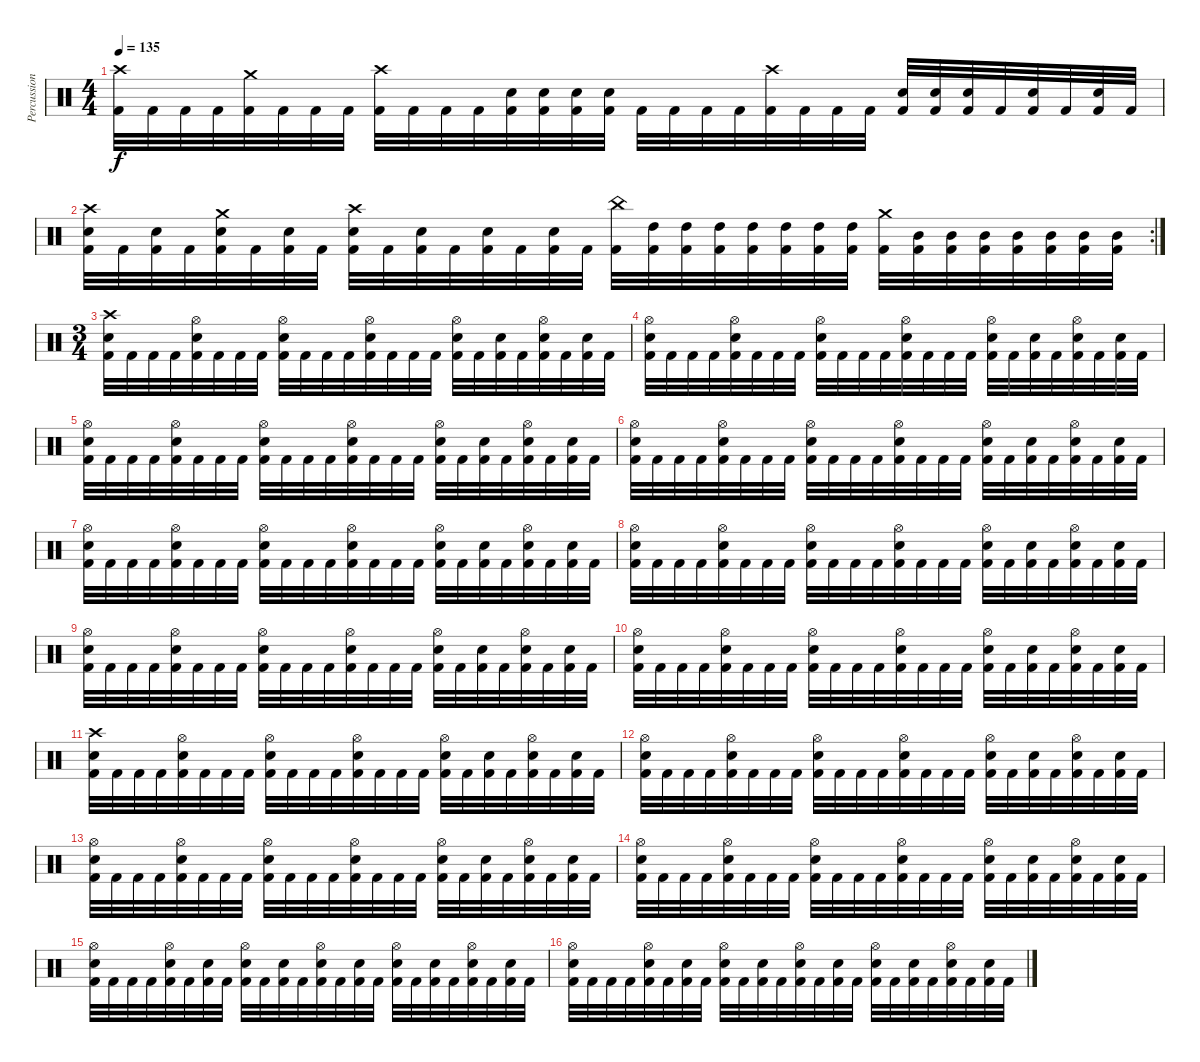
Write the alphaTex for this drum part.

\track ("Percussion" "Percussion") {instrument percussion}
\staff {score}
\articulation defaults
\ts (4 4)
\tempo 135
\clef neutral
\ks c
("Crash high (hit)" "Kick (hit) 2").32{dy f} "Kick (hit) 2".32 "Kick (hit) 2".32 "Kick (hit) 2".32 ("Crash medium (hit)" "Kick (hit) 2").32 "Kick (hit) 2".32 "Kick (hit) 2".32 "Kick (hit) 2".32 ("Crash high (hit)" "Kick (hit) 2").32 "Kick (hit) 2".32 "Kick (hit) 2".32 "Kick (hit) 2".32 ("Electric Snare (hit)" "Kick (hit) 2").32 ("Electric Snare (hit)" "Kick (hit) 2").32 ("Electric Snare (hit)" "Kick (hit) 2").32 ("Electric Snare (hit)" "Kick (hit) 2").32 "Kick (hit) 2".32 "Kick (hit) 2".32 "Kick (hit) 2".32 "Kick (hit) 2".32 ("Crash high (hit)" "Kick (hit) 2").32 "Kick (hit) 2".32 "Kick (hit) 2".32 "Kick (hit) 2".32 ("Electric Snare (hit)" "Kick (hit) 2").32 ("Electric Snare (hit)" "Kick (hit) 2").32 ("Electric Snare (hit)" "Kick (hit) 2").32 "Kick (hit) 2".32 ("Electric Snare (hit)" "Kick (hit) 2").32 "Kick (hit) 2".32 ("Electric Snare (hit)" "Kick (hit) 2").32 "Kick (hit) 2".32 |
\rc 2
("Crash high (hit)" "Electric Snare (hit)" "Kick (hit) 2").32 "Kick (hit) 2".32 ("Electric Snare (hit)" "Kick (hit) 2").32 "Kick (hit) 2".32 ("Crash medium (hit)" "Electric Snare (hit)" "Kick (hit) 2").32 "Kick (hit) 2".32 ("Electric Snare (hit)" "Kick (hit) 2").32 "Kick (hit) 2".32 ("Crash high (hit)" "Electric Snare (hit)" "Kick (hit) 2").32 "Kick (hit) 2".32 ("Electric Snare (hit)" "Kick (hit) 2").32 "Kick (hit) 2".32 ("Electric Snare (hit)" "Kick (hit) 2").32 "Kick (hit) 2".32 ("Electric Snare (hit)" "Kick (hit) 2").32 "Kick (hit) 2".32 ("China (hit)" "Kick (hit) 2").32 ("High Tom (hit)" "Kick (hit) 2").32 ("High Tom (hit)" "Kick (hit) 2").32 ("High Tom (hit)" "Kick (hit) 2").32 ("High Tom (hit)" "Kick (hit) 2").32 ("High Tom (hit)" "Kick (hit) 2").32 ("High Tom (hit)" "Kick (hit) 2").32 ("High Tom (hit)" "Kick (hit) 2").32 ("Crash medium (hit)" "Kick (hit) 2").32 ("Mid Tom (hit)" "Kick (hit) 2").32 ("Mid Tom (hit)" "Kick (hit) 2").32 ("Mid Tom (hit)" "Kick (hit) 2").32 ("Mid Tom (hit)" "Kick (hit) 2").32 ("Mid Tom (hit)" "Kick (hit) 2").32 ("Mid Tom (hit)" "Kick (hit) 2").32 ("Mid Tom (hit)" "Kick (hit) 2").32 |
\ts (3 4)
("Crash high (hit)" "Electric Snare (hit)" "Kick (hit) 2").32 "Kick (hit) 2".32 "Kick (hit) 2".32 "Kick (hit) 2".32 ("Hi-Hat (open)" "Electric Snare (hit)" "Kick (hit) 2").32 "Kick (hit) 2".32 "Kick (hit) 2".32 "Kick (hit) 2".32 ("Hi-Hat (open)" "Electric Snare (hit)" "Kick (hit) 2").32 "Kick (hit) 2".32 "Kick (hit) 2".32 "Kick (hit) 2".32 ("Hi-Hat (open)" "Electric Snare (hit)" "Kick (hit) 2").32 "Kick (hit) 2".32 "Kick (hit) 2".32 "Kick (hit) 2".32 ("Hi-Hat (open)" "Electric Snare (hit)" "Kick (hit) 2").32 "Kick (hit) 2".32 ("Electric Snare (hit)" "Kick (hit) 2").32 "Kick (hit) 2".32 ("Hi-Hat (open)" "Electric Snare (hit)" "Kick (hit) 2").32 "Kick (hit) 2".32 ("Electric Snare (hit)" "Kick (hit) 2").32 "Kick (hit) 2".32 |
("Hi-Hat (open)" "Electric Snare (hit)" "Kick (hit) 2").32 "Kick (hit) 2".32 "Kick (hit) 2".32 "Kick (hit) 2".32 ("Hi-Hat (open)" "Electric Snare (hit)" "Kick (hit) 2").32 "Kick (hit) 2".32 "Kick (hit) 2".32 "Kick (hit) 2".32 ("Hi-Hat (open)" "Electric Snare (hit)" "Kick (hit) 2").32 "Kick (hit) 2".32 "Kick (hit) 2".32 "Kick (hit) 2".32 ("Hi-Hat (open)" "Electric Snare (hit)" "Kick (hit) 2").32 "Kick (hit) 2".32 "Kick (hit) 2".32 "Kick (hit) 2".32 ("Hi-Hat (open)" "Electric Snare (hit)" "Kick (hit) 2").32 "Kick (hit) 2".32 ("Electric Snare (hit)" "Kick (hit) 2").32 "Kick (hit) 2".32 ("Hi-Hat (open)" "Electric Snare (hit)" "Kick (hit) 2").32 "Kick (hit) 2".32 ("Electric Snare (hit)" "Kick (hit) 2").32 "Kick (hit) 2".32 |
("Hi-Hat (open)" "Electric Snare (hit)" "Kick (hit) 2").32 "Kick (hit) 2".32 "Kick (hit) 2".32 "Kick (hit) 2".32 ("Hi-Hat (open)" "Electric Snare (hit)" "Kick (hit) 2").32 "Kick (hit) 2".32 "Kick (hit) 2".32 "Kick (hit) 2".32 ("Hi-Hat (open)" "Electric Snare (hit)" "Kick (hit) 2").32 "Kick (hit) 2".32 "Kick (hit) 2".32 "Kick (hit) 2".32 ("Hi-Hat (open)" "Electric Snare (hit)" "Kick (hit) 2").32 "Kick (hit) 2".32 "Kick (hit) 2".32 "Kick (hit) 2".32 ("Hi-Hat (open)" "Electric Snare (hit)" "Kick (hit) 2").32 "Kick (hit) 2".32 ("Electric Snare (hit)" "Kick (hit) 2").32 "Kick (hit) 2".32 ("Hi-Hat (open)" "Electric Snare (hit)" "Kick (hit) 2").32 "Kick (hit) 2".32 ("Electric Snare (hit)" "Kick (hit) 2").32 "Kick (hit) 2".32 |
("Hi-Hat (open)" "Electric Snare (hit)" "Kick (hit) 2").32 "Kick (hit) 2".32 "Kick (hit) 2".32 "Kick (hit) 2".32 ("Hi-Hat (open)" "Electric Snare (hit)" "Kick (hit) 2").32 "Kick (hit) 2".32 "Kick (hit) 2".32 "Kick (hit) 2".32 ("Hi-Hat (open)" "Electric Snare (hit)" "Kick (hit) 2").32 "Kick (hit) 2".32 "Kick (hit) 2".32 "Kick (hit) 2".32 ("Hi-Hat (open)" "Electric Snare (hit)" "Kick (hit) 2").32 "Kick (hit) 2".32 "Kick (hit) 2".32 "Kick (hit) 2".32 ("Hi-Hat (open)" "Electric Snare (hit)" "Kick (hit) 2").32 "Kick (hit) 2".32 ("Electric Snare (hit)" "Kick (hit) 2").32 "Kick (hit) 2".32 ("Hi-Hat (open)" "Electric Snare (hit)" "Kick (hit) 2").32 "Kick (hit) 2".32 ("Electric Snare (hit)" "Kick (hit) 2").32 "Kick (hit) 2".32 |
("Hi-Hat (open)" "Electric Snare (hit)" "Kick (hit) 2").32 "Kick (hit) 2".32 "Kick (hit) 2".32 "Kick (hit) 2".32 ("Hi-Hat (open)" "Electric Snare (hit)" "Kick (hit) 2").32 "Kick (hit) 2".32 "Kick (hit) 2".32 "Kick (hit) 2".32 ("Hi-Hat (open)" "Electric Snare (hit)" "Kick (hit) 2").32 "Kick (hit) 2".32 "Kick (hit) 2".32 "Kick (hit) 2".32 ("Hi-Hat (open)" "Electric Snare (hit)" "Kick (hit) 2").32 "Kick (hit) 2".32 "Kick (hit) 2".32 "Kick (hit) 2".32 ("Hi-Hat (open)" "Electric Snare (hit)" "Kick (hit) 2").32 "Kick (hit) 2".32 ("Electric Snare (hit)" "Kick (hit) 2").32 "Kick (hit) 2".32 ("Hi-Hat (open)" "Electric Snare (hit)" "Kick (hit) 2").32 "Kick (hit) 2".32 ("Electric Snare (hit)" "Kick (hit) 2").32 "Kick (hit) 2".32 |
("Hi-Hat (open)" "Electric Snare (hit)" "Kick (hit) 2").32 "Kick (hit) 2".32 "Kick (hit) 2".32 "Kick (hit) 2".32 ("Hi-Hat (open)" "Electric Snare (hit)" "Kick (hit) 2").32 "Kick (hit) 2".32 "Kick (hit) 2".32 "Kick (hit) 2".32 ("Hi-Hat (open)" "Electric Snare (hit)" "Kick (hit) 2").32 "Kick (hit) 2".32 "Kick (hit) 2".32 "Kick (hit) 2".32 ("Hi-Hat (open)" "Electric Snare (hit)" "Kick (hit) 2").32 "Kick (hit) 2".32 "Kick (hit) 2".32 "Kick (hit) 2".32 ("Hi-Hat (open)" "Electric Snare (hit)" "Kick (hit) 2").32 "Kick (hit) 2".32 ("Electric Snare (hit)" "Kick (hit) 2").32 "Kick (hit) 2".32 ("Hi-Hat (open)" "Electric Snare (hit)" "Kick (hit) 2").32 "Kick (hit) 2".32 ("Electric Snare (hit)" "Kick (hit) 2").32 "Kick (hit) 2".32 |
("Hi-Hat (open)" "Electric Snare (hit)" "Kick (hit) 2").32 "Kick (hit) 2".32 "Kick (hit) 2".32 "Kick (hit) 2".32 ("Hi-Hat (open)" "Electric Snare (hit)" "Kick (hit) 2").32 "Kick (hit) 2".32 "Kick (hit) 2".32 "Kick (hit) 2".32 ("Hi-Hat (open)" "Electric Snare (hit)" "Kick (hit) 2").32 "Kick (hit) 2".32 "Kick (hit) 2".32 "Kick (hit) 2".32 ("Hi-Hat (open)" "Electric Snare (hit)" "Kick (hit) 2").32 "Kick (hit) 2".32 "Kick (hit) 2".32 "Kick (hit) 2".32 ("Hi-Hat (open)" "Electric Snare (hit)" "Kick (hit) 2").32 "Kick (hit) 2".32 ("Electric Snare (hit)" "Kick (hit) 2").32 "Kick (hit) 2".32 ("Hi-Hat (open)" "Electric Snare (hit)" "Kick (hit) 2").32 "Kick (hit) 2".32 ("Electric Snare (hit)" "Kick (hit) 2").32 "Kick (hit) 2".32 |
("Hi-Hat (open)" "Electric Snare (hit)" "Kick (hit) 2").32 "Kick (hit) 2".32 "Kick (hit) 2".32 "Kick (hit) 2".32 ("Hi-Hat (open)" "Electric Snare (hit)" "Kick (hit) 2").32 "Kick (hit) 2".32 "Kick (hit) 2".32 "Kick (hit) 2".32 ("Hi-Hat (open)" "Electric Snare (hit)" "Kick (hit) 2").32 "Kick (hit) 2".32 "Kick (hit) 2".32 "Kick (hit) 2".32 ("Hi-Hat (open)" "Electric Snare (hit)" "Kick (hit) 2").32 "Kick (hit) 2".32 "Kick (hit) 2".32 "Kick (hit) 2".32 ("Hi-Hat (open)" "Electric Snare (hit)" "Kick (hit) 2").32 "Kick (hit) 2".32 ("Electric Snare (hit)" "Kick (hit) 2").32 "Kick (hit) 2".32 ("Hi-Hat (open)" "Electric Snare (hit)" "Kick (hit) 2").32 "Kick (hit) 2".32 ("Electric Snare (hit)" "Kick (hit) 2").32 "Kick (hit) 2".32 |
("Crash high (hit)" "Electric Snare (hit)" "Kick (hit) 2").32 "Kick (hit) 2".32 "Kick (hit) 2".32 "Kick (hit) 2".32 ("Hi-Hat (open)" "Electric Snare (hit)" "Kick (hit) 2").32 "Kick (hit) 2".32 "Kick (hit) 2".32 "Kick (hit) 2".32 ("Hi-Hat (open)" "Electric Snare (hit)" "Kick (hit) 2").32 "Kick (hit) 2".32 "Kick (hit) 2".32 "Kick (hit) 2".32 ("Hi-Hat (open)" "Electric Snare (hit)" "Kick (hit) 2").32 "Kick (hit) 2".32 "Kick (hit) 2".32 "Kick (hit) 2".32 ("Hi-Hat (open)" "Electric Snare (hit)" "Kick (hit) 2").32 "Kick (hit) 2".32 ("Electric Snare (hit)" "Kick (hit) 2").32 "Kick (hit) 2".32 ("Hi-Hat (open)" "Electric Snare (hit)" "Kick (hit) 2").32 "Kick (hit) 2".32 ("Electric Snare (hit)" "Kick (hit) 2").32 "Kick (hit) 2".32 |
("Hi-Hat (open)" "Electric Snare (hit)" "Kick (hit) 2").32 "Kick (hit) 2".32 "Kick (hit) 2".32 "Kick (hit) 2".32 ("Hi-Hat (open)" "Electric Snare (hit)" "Kick (hit) 2").32 "Kick (hit) 2".32 "Kick (hit) 2".32 "Kick (hit) 2".32 ("Hi-Hat (open)" "Electric Snare (hit)" "Kick (hit) 2").32 "Kick (hit) 2".32 "Kick (hit) 2".32 "Kick (hit) 2".32 ("Hi-Hat (open)" "Electric Snare (hit)" "Kick (hit) 2").32 "Kick (hit) 2".32 "Kick (hit) 2".32 "Kick (hit) 2".32 ("Hi-Hat (open)" "Electric Snare (hit)" "Kick (hit) 2").32 "Kick (hit) 2".32 ("Electric Snare (hit)" "Kick (hit) 2").32 "Kick (hit) 2".32 ("Hi-Hat (open)" "Electric Snare (hit)" "Kick (hit) 2").32 "Kick (hit) 2".32 ("Electric Snare (hit)" "Kick (hit) 2").32 "Kick (hit) 2".32 |
("Hi-Hat (open)" "Electric Snare (hit)" "Kick (hit) 2").32 "Kick (hit) 2".32 "Kick (hit) 2".32 "Kick (hit) 2".32 ("Hi-Hat (open)" "Electric Snare (hit)" "Kick (hit) 2").32 "Kick (hit) 2".32 "Kick (hit) 2".32 "Kick (hit) 2".32 ("Hi-Hat (open)" "Electric Snare (hit)" "Kick (hit) 2").32 "Kick (hit) 2".32 "Kick (hit) 2".32 "Kick (hit) 2".32 ("Hi-Hat (open)" "Electric Snare (hit)" "Kick (hit) 2").32 "Kick (hit) 2".32 "Kick (hit) 2".32 "Kick (hit) 2".32 ("Hi-Hat (open)" "Electric Snare (hit)" "Kick (hit) 2").32 "Kick (hit) 2".32 ("Electric Snare (hit)" "Kick (hit) 2").32 "Kick (hit) 2".32 ("Hi-Hat (open)" "Electric Snare (hit)" "Kick (hit) 2").32 "Kick (hit) 2".32 ("Electric Snare (hit)" "Kick (hit) 2").32 "Kick (hit) 2".32 |
("Hi-Hat (open)" "Electric Snare (hit)" "Kick (hit) 2").32 "Kick (hit) 2".32 "Kick (hit) 2".32 "Kick (hit) 2".32 ("Hi-Hat (open)" "Electric Snare (hit)" "Kick (hit) 2").32 "Kick (hit) 2".32 "Kick (hit) 2".32 "Kick (hit) 2".32 ("Hi-Hat (open)" "Electric Snare (hit)" "Kick (hit) 2").32 "Kick (hit) 2".32 "Kick (hit) 2".32 "Kick (hit) 2".32 ("Hi-Hat (open)" "Electric Snare (hit)" "Kick (hit) 2").32 "Kick (hit) 2".32 "Kick (hit) 2".32 "Kick (hit) 2".32 ("Hi-Hat (open)" "Electric Snare (hit)" "Kick (hit) 2").32 "Kick (hit) 2".32 ("Electric Snare (hit)" "Kick (hit) 2").32 "Kick (hit) 2".32 ("Hi-Hat (open)" "Electric Snare (hit)" "Kick (hit) 2").32 "Kick (hit) 2".32 ("Electric Snare (hit)" "Kick (hit) 2").32 "Kick (hit) 2".32 |
("Hi-Hat (open)" "Electric Snare (hit)" "Kick (hit) 2").32 "Kick (hit) 2".32 "Kick (hit) 2".32 "Kick (hit) 2".32 ("Hi-Hat (open)" "Electric Snare (hit)" "Kick (hit) 2").32 "Kick (hit) 2".32 ("Electric Snare (hit)" "Kick (hit) 2").32 "Kick (hit) 2".32 ("Hi-Hat (open)" "Electric Snare (hit)" "Kick (hit) 2").32 "Kick (hit) 2".32 ("Electric Snare (hit)" "Kick (hit) 2").32 "Kick (hit) 2".32 ("Hi-Hat (open)" "Electric Snare (hit)" "Kick (hit) 2").32 "Kick (hit) 2".32 ("Electric Snare (hit)" "Kick (hit) 2").32 "Kick (hit) 2".32 ("Hi-Hat (open)" "Electric Snare (hit)" "Kick (hit) 2").32 "Kick (hit) 2".32 ("Electric Snare (hit)" "Kick (hit) 2").32 "Kick (hit) 2".32 ("Hi-Hat (open)" "Electric Snare (hit)" "Kick (hit) 2").32 "Kick (hit) 2".32 ("Electric Snare (hit)" "Kick (hit) 2").32 "Kick (hit) 2".32 |
("Hi-Hat (open)" "Electric Snare (hit)" "Kick (hit) 2").32 "Kick (hit) 2".32 "Kick (hit) 2".32 "Kick (hit) 2".32 ("Hi-Hat (open)" "Electric Snare (hit)" "Kick (hit) 2").32 "Kick (hit) 2".32 ("Electric Snare (hit)" "Kick (hit) 2").32 "Kick (hit) 2".32 ("Hi-Hat (open)" "Electric Snare (hit)" "Kick (hit) 2").32 "Kick (hit) 2".32 ("Electric Snare (hit)" "Kick (hit) 2").32 "Kick (hit) 2".32 ("Hi-Hat (open)" "Electric Snare (hit)" "Kick (hit) 2").32 "Kick (hit) 2".32 ("Electric Snare (hit)" "Kick (hit) 2").32 "Kick (hit) 2".32 ("Hi-Hat (open)" "Electric Snare (hit)" "Kick (hit) 2").32 "Kick (hit) 2".32 ("Electric Snare (hit)" "Kick (hit) 2").32 "Kick (hit) 2".32 ("Hi-Hat (open)" "Electric Snare (hit)" "Kick (hit) 2").32 "Kick (hit) 2".32 ("Electric Snare (hit)" "Kick (hit) 2").32 "Kick (hit) 2".32
